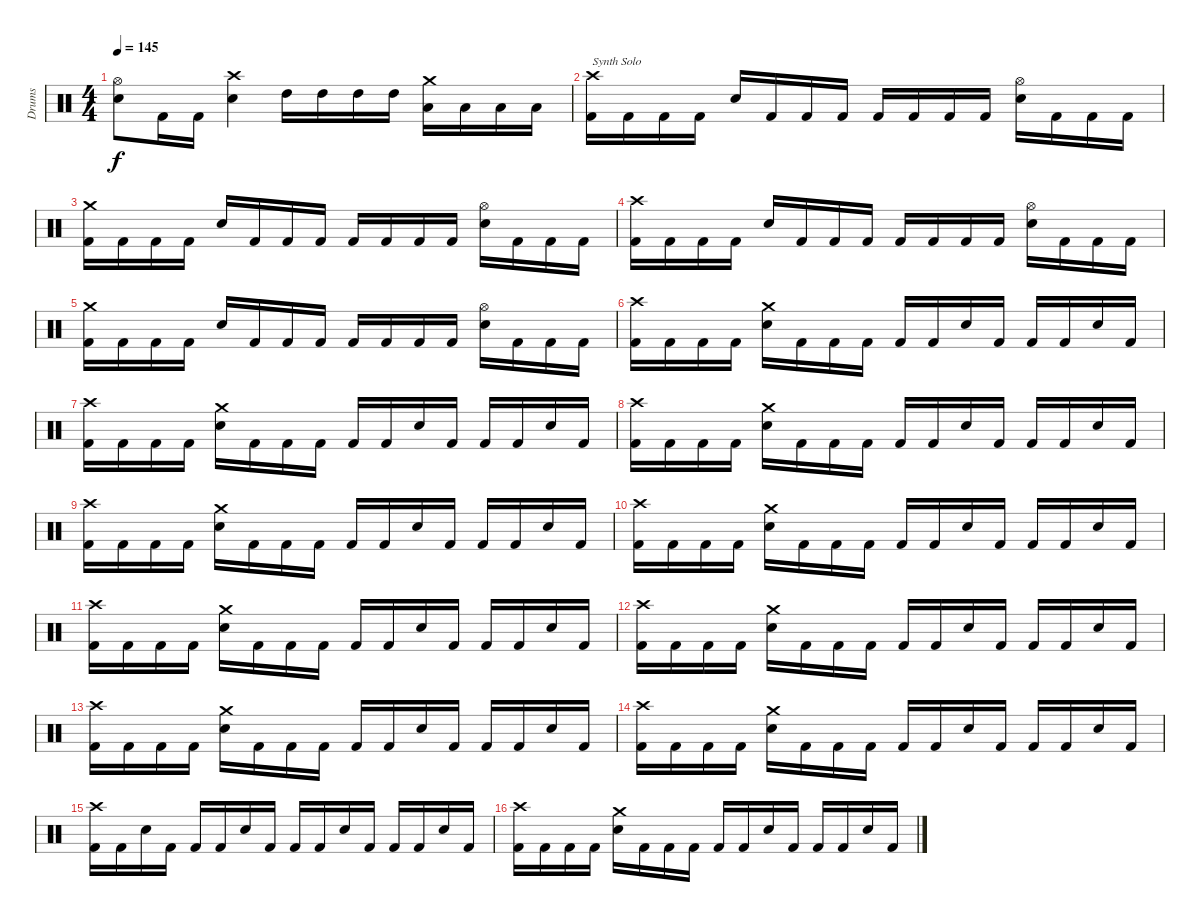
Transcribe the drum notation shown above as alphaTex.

\track ("Drums" "Drums") {instrument percussion}
\staff {score}
\articulation defaults
\ts (4 4)
\tempo 145
\clef neutral
\ks c
("Hi-Hat (open)" "Snare (hit) 2").8{dy f} "Kick (hit) 2".16 "Kick (hit) 2".16 ("Crash high (hit)" "Snare (hit) 2").4 "High Tom (hit)".16 "High Tom (hit)".16 "High Tom (hit)".16 "High Tom (hit)".16 ("Low Tom (hit)" "Crash medium (hit)").16 "Low Tom (hit)".16 "Low Tom (hit)".16 "Low Tom (hit)".16 |
("Crash high (hit)" "Kick (hit) 2").16{txt "Synth Solo"} "Kick (hit) 2".16 "Kick (hit) 2".16 "Kick (hit) 2".16 "Snare (hit) 2".16 "Kick (hit) 2".16 "Kick (hit) 2".16 "Kick (hit) 2".16 "Kick (hit) 2".16 "Kick (hit) 2".16 "Kick (hit) 2".16 "Kick (hit) 2".16 ("Hi-Hat (open)" "Snare (hit) 2").16 "Kick (hit) 2".16 "Kick (hit) 2".16 "Kick (hit) 2".16 |
("Crash medium (hit)" "Kick (hit) 2").16 "Kick (hit) 2".16 "Kick (hit) 2".16 "Kick (hit) 2".16 "Snare (hit) 2".16 "Kick (hit) 2".16 "Kick (hit) 2".16 "Kick (hit) 2".16 "Kick (hit) 2".16 "Kick (hit) 2".16 "Kick (hit) 2".16 "Kick (hit) 2".16 ("Hi-Hat (open)" "Snare (hit) 2").16 "Kick (hit) 2".16 "Kick (hit) 2".16 "Kick (hit) 2".16 |
("Crash high (hit)" "Kick (hit) 2").16 "Kick (hit) 2".16 "Kick (hit) 2".16 "Kick (hit) 2".16 "Snare (hit) 2".16 "Kick (hit) 2".16 "Kick (hit) 2".16 "Kick (hit) 2".16 "Kick (hit) 2".16 "Kick (hit) 2".16 "Kick (hit) 2".16 "Kick (hit) 2".16 ("Hi-Hat (open)" "Snare (hit) 2").16 "Kick (hit) 2".16 "Kick (hit) 2".16 "Kick (hit) 2".16 |
("Crash medium (hit)" "Kick (hit) 2").16 "Kick (hit) 2".16 "Kick (hit) 2".16 "Kick (hit) 2".16 "Snare (hit) 2".16 "Kick (hit) 2".16 "Kick (hit) 2".16 "Kick (hit) 2".16 "Kick (hit) 2".16 "Kick (hit) 2".16 "Kick (hit) 2".16 "Kick (hit) 2".16 ("Hi-Hat (open)" "Snare (hit) 2").16 "Kick (hit) 2".16 "Kick (hit) 2".16 "Kick (hit) 2".16 |
("Crash high (hit)" "Kick (hit) 2").16 "Kick (hit) 2".16 "Kick (hit) 2".16 "Kick (hit) 2".16 ("Crash medium (hit)" "Snare (hit) 2").16 "Kick (hit) 2".16 "Kick (hit) 2".16 "Kick (hit) 2".16 "Kick (hit) 2".16 "Kick (hit) 2".16 "Snare (hit) 2".16 "Kick (hit) 2".16 "Kick (hit) 2".16 "Kick (hit) 2".16 "Snare (hit) 2".16 "Kick (hit) 2".16 |
("Crash high (hit)" "Kick (hit) 2").16 "Kick (hit) 2".16 "Kick (hit) 2".16 "Kick (hit) 2".16 ("Crash medium (hit)" "Snare (hit) 2").16 "Kick (hit) 2".16 "Kick (hit) 2".16 "Kick (hit) 2".16 "Kick (hit) 2".16 "Kick (hit) 2".16 "Snare (hit) 2".16 "Kick (hit) 2".16 "Kick (hit) 2".16 "Kick (hit) 2".16 "Snare (hit) 2".16 "Kick (hit) 2".16 |
("Crash high (hit)" "Kick (hit) 2").16 "Kick (hit) 2".16 "Kick (hit) 2".16 "Kick (hit) 2".16 ("Crash medium (hit)" "Snare (hit) 2").16 "Kick (hit) 2".16 "Kick (hit) 2".16 "Kick (hit) 2".16 "Kick (hit) 2".16 "Kick (hit) 2".16 "Snare (hit) 2".16 "Kick (hit) 2".16 "Kick (hit) 2".16 "Kick (hit) 2".16 "Snare (hit) 2".16 "Kick (hit) 2".16 |
("Crash high (hit)" "Kick (hit) 2").16 "Kick (hit) 2".16 "Kick (hit) 2".16 "Kick (hit) 2".16 ("Crash medium (hit)" "Snare (hit) 2").16 "Kick (hit) 2".16 "Kick (hit) 2".16 "Kick (hit) 2".16 "Kick (hit) 2".16 "Kick (hit) 2".16 "Snare (hit) 2".16 "Kick (hit) 2".16 "Kick (hit) 2".16 "Kick (hit) 2".16 "Snare (hit) 2".16 "Kick (hit) 2".16 |
("Crash high (hit)" "Kick (hit) 2").16 "Kick (hit) 2".16 "Kick (hit) 2".16 "Kick (hit) 2".16 ("Crash medium (hit)" "Snare (hit) 2").16 "Kick (hit) 2".16 "Kick (hit) 2".16 "Kick (hit) 2".16 "Kick (hit) 2".16 "Kick (hit) 2".16 "Snare (hit) 2".16 "Kick (hit) 2".16 "Kick (hit) 2".16 "Kick (hit) 2".16 "Snare (hit) 2".16 "Kick (hit) 2".16 |
("Crash high (hit)" "Kick (hit) 2").16 "Kick (hit) 2".16 "Kick (hit) 2".16 "Kick (hit) 2".16 ("Crash medium (hit)" "Snare (hit) 2").16 "Kick (hit) 2".16 "Kick (hit) 2".16 "Kick (hit) 2".16 "Kick (hit) 2".16 "Kick (hit) 2".16 "Snare (hit) 2".16 "Kick (hit) 2".16 "Kick (hit) 2".16 "Kick (hit) 2".16 "Snare (hit) 2".16 "Kick (hit) 2".16 |
("Crash high (hit)" "Kick (hit) 2").16 "Kick (hit) 2".16 "Kick (hit) 2".16 "Kick (hit) 2".16 ("Crash medium (hit)" "Snare (hit) 2").16 "Kick (hit) 2".16 "Kick (hit) 2".16 "Kick (hit) 2".16 "Kick (hit) 2".16 "Kick (hit) 2".16 "Snare (hit) 2".16 "Kick (hit) 2".16 "Kick (hit) 2".16 "Kick (hit) 2".16 "Snare (hit) 2".16 "Kick (hit) 2".16 |
("Crash high (hit)" "Kick (hit) 2").16 "Kick (hit) 2".16 "Kick (hit) 2".16 "Kick (hit) 2".16 ("Crash medium (hit)" "Snare (hit) 2").16 "Kick (hit) 2".16 "Kick (hit) 2".16 "Kick (hit) 2".16 "Kick (hit) 2".16 "Kick (hit) 2".16 "Snare (hit) 2".16 "Kick (hit) 2".16 "Kick (hit) 2".16 "Kick (hit) 2".16 "Snare (hit) 2".16 "Kick (hit) 2".16 |
("Crash high (hit)" "Kick (hit) 2").16 "Kick (hit) 2".16 "Kick (hit) 2".16 "Kick (hit) 2".16 ("Crash medium (hit)" "Snare (hit) 2").16 "Kick (hit) 2".16 "Kick (hit) 2".16 "Kick (hit) 2".16 "Kick (hit) 2".16 "Kick (hit) 2".16 "Snare (hit) 2".16 "Kick (hit) 2".16 "Kick (hit) 2".16 "Kick (hit) 2".16 "Snare (hit) 2".16 "Kick (hit) 2".16 |
("Crash high (hit)" "Kick (hit) 2").16 "Kick (hit) 2".16 "Snare (hit) 2".16 "Kick (hit) 2".16 "Kick (hit) 2".16 "Kick (hit) 2".16 "Snare (hit) 2".16 "Kick (hit) 2".16 "Kick (hit) 2".16 "Kick (hit) 2".16 "Snare (hit) 2".16 "Kick (hit) 2".16 "Kick (hit) 2".16 "Kick (hit) 2".16 "Snare (hit) 2".16 "Kick (hit) 2".16 |
("Crash high (hit)" "Kick (hit) 2").16 "Kick (hit) 2".16 "Kick (hit) 2".16 "Kick (hit) 2".16 ("Crash medium (hit)" "Snare (hit) 2").16 "Kick (hit) 2".16 "Kick (hit) 2".16 "Kick (hit) 2".16 "Kick (hit) 2".16 "Kick (hit) 2".16 "Snare (hit) 2".16 "Kick (hit) 2".16 "Kick (hit) 2".16 "Kick (hit) 2".16 "Snare (hit) 2".16 "Kick (hit) 2".16
